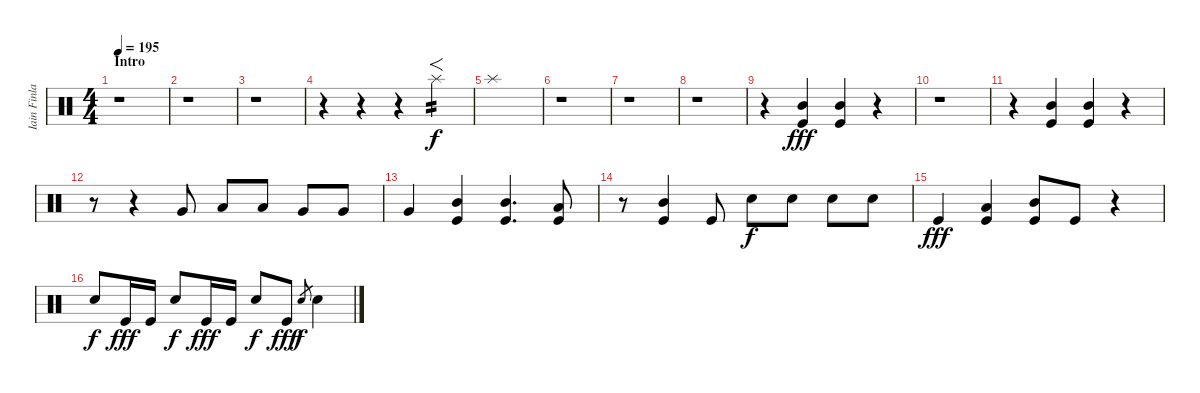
\track ("Iain Finlay (Batería)" "Iain Finla") {instrument percussion}
\staff {score}
\articulation defaults
\ts (4 4)
\section ("" "Intro")
\tempo 195
\clef neutral
\ks c
r.1{dy f} |
r.1 |
r.1 |
r.4 r.4 r.4 "Splash (hit)".4{f tp 2} |
"Splash (hit)".1 |
r.1 |
r.1 |
r.1 |
r.4 ("Mid Tom (hit)" "Kick (hit)").4{dy fff} ("Mid Tom (hit)" "Kick (hit)").4 r.4 |
r.1 |
r.4 ("Mid Tom (hit)" "Kick (hit)").4 ("Mid Tom (hit)" "Kick (hit)").4 r.4 |
r.8 r.4 "Very Low Tom (hit)".8 "Low Tom (hit)".8 "Low Tom (hit)".8 "Very Low Tom (hit)".8 "Very Low Tom (hit)".8 |
"Very Low Tom (hit)".4 ("Mid Tom (hit)" "Kick (hit)").4 ("Mid Tom (hit)" "Kick (hit)").4{d} ("Low Tom (hit)" "Kick (hit)").8 |
r.8 ("Mid Tom (hit)" "Kick (hit)").4 "Kick (hit)".8 "Electric Snare (hit)".8{dy f} "Electric Snare (hit)".8 "Electric Snare (hit)".8 "Electric Snare (hit)".8 |
"Kick (hit)".4{dy fff} ("Low Tom (hit)" "Kick (hit)").4 ("Mid Tom (hit)" "Kick (hit)").8 "Kick (hit)".8 r.4 |
"Electric Snare (hit)".8{dy f} "Kick (hit)".16{dy fff} "Kick (hit)".16 "Electric Snare (hit)".8{dy f} "Kick (hit)".16{dy fff} "Kick (hit)".16 "Electric Snare (hit)".8{dy f} "Kick (hit)".8{dy fff} "Electric Snare (hit)".8{gr dy f} "Electric Snare (hit)".4
